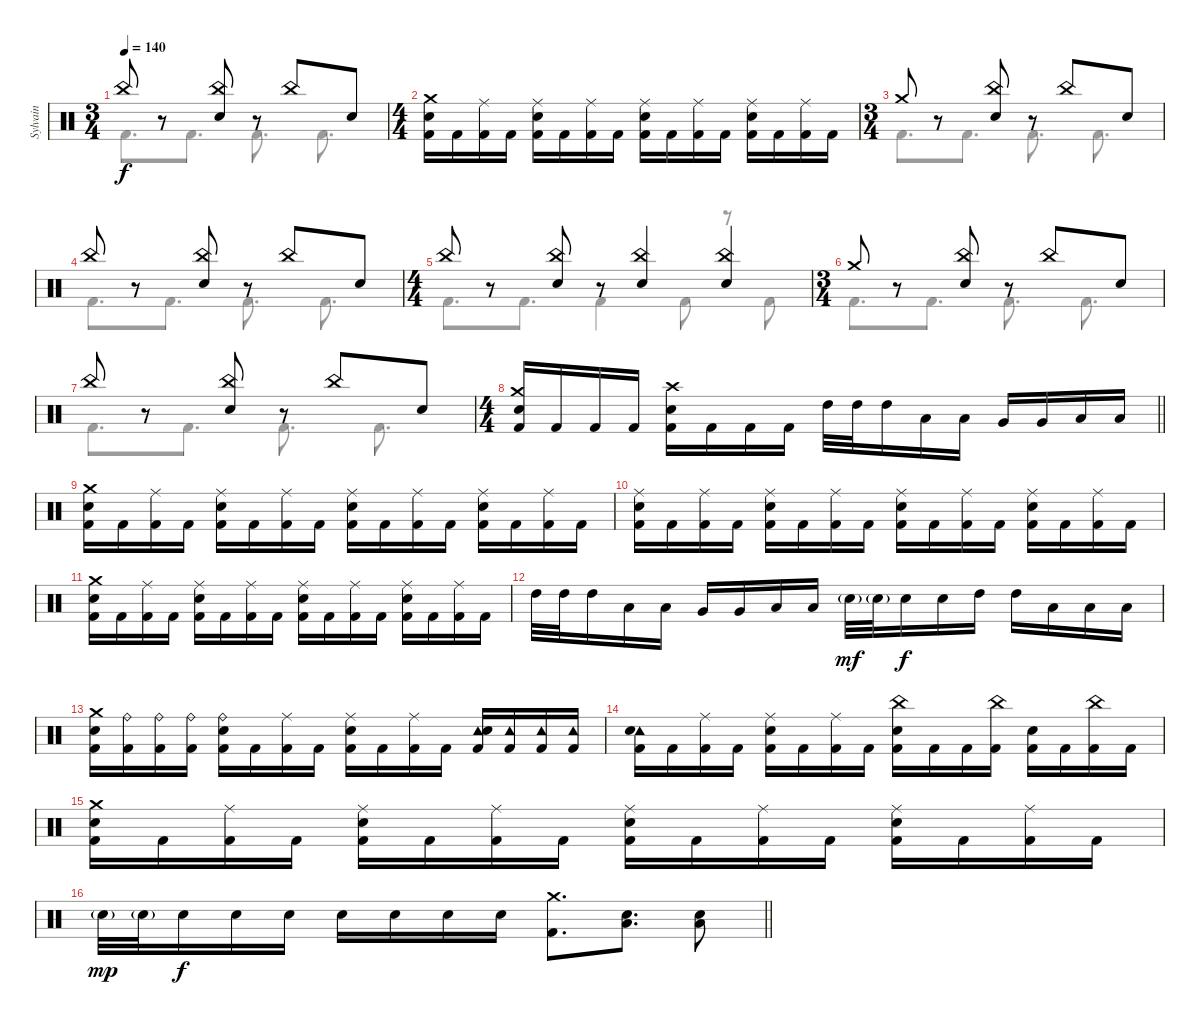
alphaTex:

\track ("Sylvain" "Sylvain") {instrument percussion}
\staff {score}
\articulation defaults
\voice
\ts (3 4)
\tempo 140
\clef neutral
\ks c "China (hit)".8{dy f}
r.8 ("China (hit)" "Snare (hit) 2").8 r.8 "China (hit)".8 "Snare (hit) 2".8 |
\ts (4 4)
("Crash medium (hit)" "Snare (hit) 2" "Kick (hit) 2").16 "Kick (hit) 2".16 ("Ride (middle)" "Kick (hit) 2").16 "Kick (hit) 2".16 ("Ride (middle)" "Snare (hit) 2" "Kick (hit) 2").16 "Kick (hit) 2".16 ("Ride (middle)" "Kick (hit) 2").16 "Kick (hit) 2".16 ("Ride (middle)" "Snare (hit) 2" "Kick (hit) 2").16 "Kick (hit) 2".16 ("Ride (middle)" "Kick (hit) 2").16 "Kick (hit) 2".16 ("Ride (middle)" "Snare (hit) 2" "Kick (hit) 2").16 "Kick (hit) 2".16 ("Ride (middle)" "Kick (hit) 2").16 "Kick (hit) 2".16 |
\ts (3 4)
"Crash medium (hit)".8 r.8 ("China (hit)" "Snare (hit) 2").8 r.8 "China (hit)".8 "Snare (hit) 2".8 |
"China (hit)".8 r.8 ("China (hit)" "Snare (hit) 2").8 r.8 "China (hit)".8 "Snare (hit) 2".8 |
\ts (4 4)
"China (hit)".8 r.8 ("China (hit)" "Snare (hit) 2").8 r.8 ("China (hit)" "Snare (hit) 2").4 ("China (hit)" "Snare (hit) 2").4 |
\ts (3 4)
"Crash medium (hit)".8 r.8 ("China (hit)" "Snare (hit) 2").8 r.8 "China (hit)".8 "Snare (hit) 2".8 |
"China (hit)".8 r.8 ("China (hit)" "Snare (hit) 2").8 r.8 "China (hit)".8 "Snare (hit) 2".8 |
\ts (4 4)
\barLineRight lightlight
("Crash medium (hit)" "Snare (hit) 2" "Kick (hit) 2").16 "Kick (hit) 2".16 "Kick (hit) 2".16 "Kick (hit) 2".16 ("Crash high (hit)" "Snare (hit) 2" "Kick (hit) 2").16 "Kick (hit) 2".16 "Kick (hit) 2".16 "Kick (hit) 2".16 "High Tom (hit)".32 "High Tom (hit)".32 "High Tom (hit)".16 "Low Tom (hit)".16 "Low Tom (hit)".16 "Very Low Tom (hit)".16 "Very Low Tom (hit)".16 "Low Floor Tom (hit)".16 "Low Floor Tom (hit)".16 |
("Crash medium (hit)" "Snare (hit) 2" "Kick (hit) 2").16 "Kick (hit) 2".16 ("Ride (middle)" "Kick (hit) 2").16 "Kick (hit) 2".16 ("Ride (middle)" "Snare (hit) 2" "Kick (hit) 2").16 "Kick (hit) 2".16 ("Ride (middle)" "Kick (hit) 2").16 "Kick (hit) 2".16 ("Ride (middle)" "Snare (hit) 2" "Kick (hit) 2").16 "Kick (hit) 2".16 ("Ride (middle)" "Kick (hit) 2").16 "Kick (hit) 2".16 ("Ride (middle)" "Snare (hit) 2" "Kick (hit) 2").16 "Kick (hit) 2".16 ("Ride (middle)" "Kick (hit) 2").16 "Kick (hit) 2".16 |
("Ride (middle)" "Snare (hit) 2" "Kick (hit) 2").16 "Kick (hit) 2".16 ("Ride (middle)" "Kick (hit) 2").16 "Kick (hit) 2".16 ("Ride (middle)" "Snare (hit) 2" "Kick (hit) 2").16 "Kick (hit) 2".16 ("Ride (middle)" "Kick (hit) 2").16 "Kick (hit) 2".16 ("Ride (middle)" "Snare (hit) 2" "Kick (hit) 2").16 "Kick (hit) 2".16 ("Ride (middle)" "Kick (hit) 2").16 "Kick (hit) 2".16 ("Ride (middle)" "Snare (hit) 2" "Kick (hit) 2").16 "Kick (hit) 2".16 ("Ride (middle)" "Kick (hit) 2").16 "Kick (hit) 2".16 |
("Crash medium (hit)" "Snare (hit) 2" "Kick (hit) 2").16 "Kick (hit) 2".16 ("Ride (middle)" "Kick (hit) 2").16 "Kick (hit) 2".16 ("Ride (middle)" "Snare (hit) 2" "Kick (hit) 2").16 "Kick (hit) 2".16 ("Ride (middle)" "Kick (hit) 2").16 "Kick (hit) 2".16 ("Ride (middle)" "Snare (hit) 2" "Kick (hit) 2").16 "Kick (hit) 2".16 ("Ride (middle)" "Kick (hit) 2").16 "Kick (hit) 2".16 ("Ride (middle)" "Snare (hit) 2" "Kick (hit) 2").16 "Kick (hit) 2".16 ("Ride (middle)" "Kick (hit) 2").16 "Kick (hit) 2".16 |
"High Tom (hit)".32 "High Tom (hit)".32 "High Tom (hit)".16 "Low Tom (hit)".16 "Low Tom (hit)".16 "Very Low Tom (hit)".16 "Very Low Tom (hit)".16 "Low Floor Tom (hit)".16 "Low Floor Tom (hit)".16 "Snare (hit) 2"{g}.32{dy mf} "Snare (hit) 2"{g}.32 "Snare (hit) 2".16{dy f} "Snare (hit) 2".16 "High Tom (hit)".16 "High Tom (hit)".16 "Low Tom (hit)".16 "Low Tom (hit)".16 "Low Floor Tom (hit)".16 |
("Crash medium (hit)" "Snare (hit) 2" "Kick (hit) 2").16 ("Ride (bell)" "Kick (hit) 2").16 ("Ride (bell)" "Kick (hit) 2").16 ("Ride (bell)" "Kick (hit) 2").16 ("Ride (bell)" "Snare (hit) 2" "Kick (hit) 2").16 "Kick (hit) 2".16 ("Ride (middle)" "Kick (hit) 2").16 "Kick (hit) 2".16 ("Ride (middle)" "Snare (hit) 2" "Kick (hit) 2").16 "Kick (hit) 2".16 ("Ride (middle)" "Kick (hit) 2").16 "Kick (hit) 2".16 ("Tambourine (hit)" "Snare (hit) 2" "Kick (hit) 2").16 ("Tambourine (hit)" "Kick (hit) 2").16 ("Tambourine (hit)" "Kick (hit) 2").16 ("Tambourine (hit)" "Kick (hit) 2").16 |
("Tambourine (hit)" "Snare (hit) 2" "Kick (hit) 2").16 "Kick (hit) 2".16 ("Ride (middle)" "Kick (hit) 2").16 "Kick (hit) 2".16 ("Ride (middle)" "Snare (hit) 2" "Kick (hit) 2").16 "Kick (hit) 2".16 ("Ride (middle)" "Kick (hit) 2").16 "Kick (hit) 2".16 ("China (hit)" "Snare (hit) 2" "Kick (hit) 2").16 "Kick (hit) 2".16 "Kick (hit) 2".16 ("China (hit)" "Kick (hit) 2").16 ("Snare (hit) 2" "Kick (hit) 2").16 "Kick (hit) 2".16 ("China (hit)" "Kick (hit) 2").16 "Kick (hit) 2".16 |
("Crash medium (hit)" "Snare (hit) 2" "Kick (hit) 2").16 "Kick (hit) 2".16 ("Ride (middle)" "Kick (hit) 2").16 "Kick (hit) 2".16 ("Ride (middle)" "Snare (hit) 2" "Kick (hit) 2").16 "Kick (hit) 2".16 ("Ride (middle)" "Kick (hit) 2").16 "Kick (hit) 2".16 ("Ride (middle)" "Snare (hit) 2" "Kick (hit) 2").16 "Kick (hit) 2".16 ("Ride (middle)" "Kick (hit) 2").16 "Kick (hit) 2".16 ("Ride (middle)" "Snare (hit) 2" "Kick (hit) 2").16 "Kick (hit) 2".16 ("Ride (middle)" "Kick (hit) 2").16 "Kick (hit) 2".16 |
\barLineRight lightlight "Snare (hit) 2"{g}.32{dy mp} "Snare (hit) 2"{g}.32 "Snare (hit) 2".16{dy f} "Snare (hit) 2".16 "Snare (hit) 2".16 "Snare (hit) 2".16 "Snare (hit) 2".16 "Snare (hit) 2".16 "Snare (hit) 2".16
("Crash medium (hit)" "Kick (hit) 2").8{d} ("Snare (hit) 2" "Low Floor Tom (hit)").8{d} ("Snare (hit) 2" "Low Floor Tom (hit)").8
\voice
\clef neutral
\ottava regular
\simile none
\ks c "Kick (hit) 2".8{d dy f} "Kick (hit) 2".8{d} "Kick (hit) 2".8{d} "Kick (hit) 2".8{d}
|
|
"Kick (hit) 2".8{d} "Kick (hit) 2".8{d} "Kick (hit) 2".8{d} "Kick (hit) 2".8{d} |
"Kick (hit) 2".8{d} "Kick (hit) 2".8{d} "Kick (hit) 2".8{d} "Kick (hit) 2".8{d} |
"Kick (hit) 2".8{d} "Kick (hit) 2".8{d} "Kick (hit) 2".4 "Kick (hit) 2".8 r.8 "Kick (hit) 2".8 |
"Kick (hit) 2".8{d} "Kick (hit) 2".8{d} "Kick (hit) 2".8{d} "Kick (hit) 2".8{d} |
"Kick (hit) 2".8{d} "Kick (hit) 2".8{d} "Kick (hit) 2".8{d} "Kick (hit) 2".8{d} |
\barLineRight lightlight
|
|
|
|
|
|
|
|
\barLineRight lightlight
